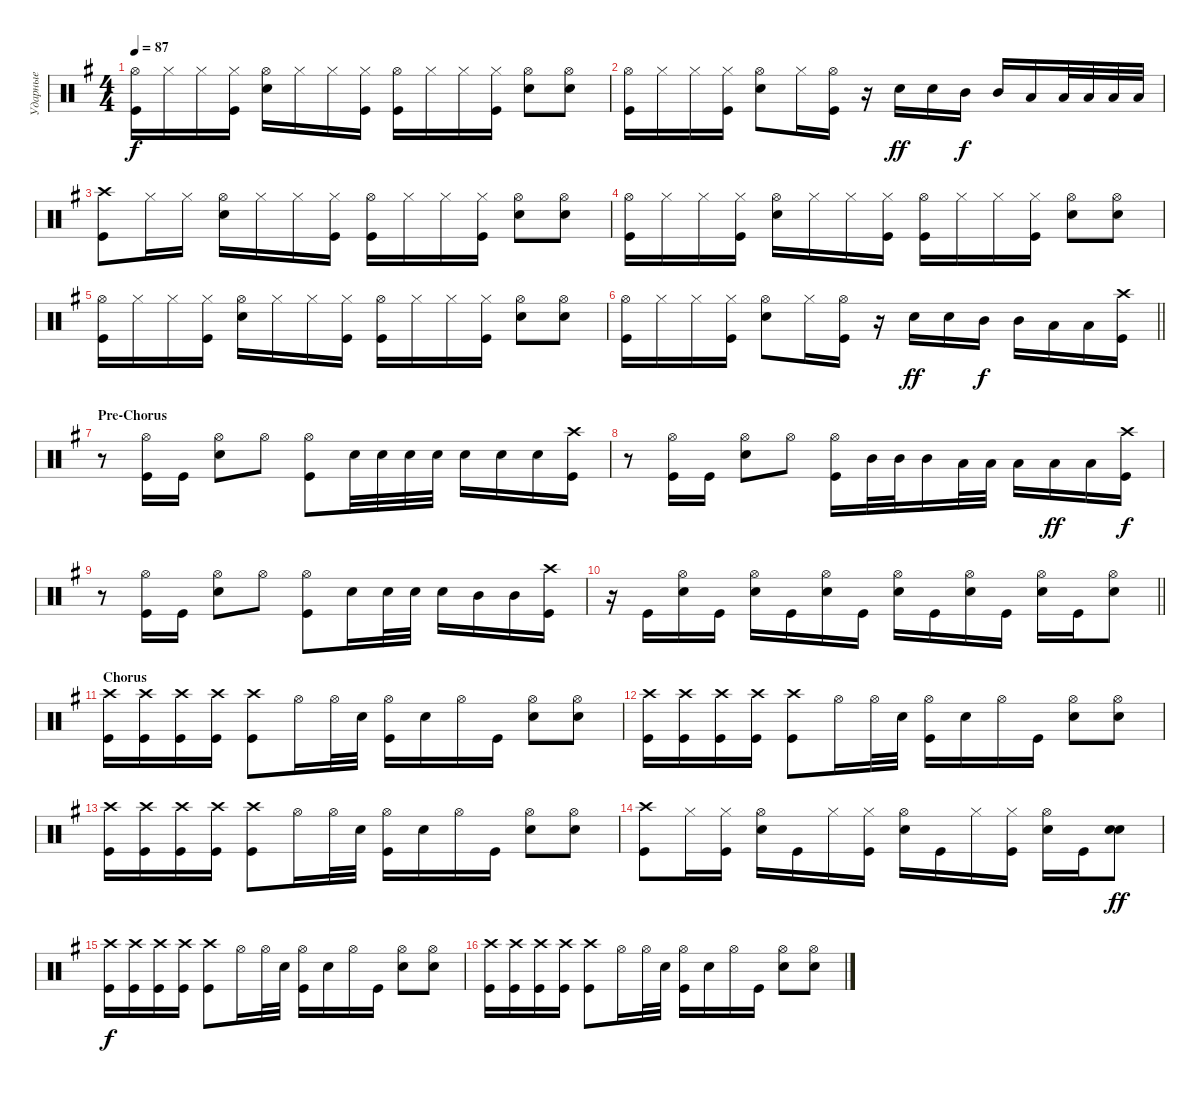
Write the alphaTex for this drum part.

\track ("Ударные" "Ударные") {instrument percussion}
\staff {score}
\articulation defaults
\ts (4 4)
\tempo 87
\clef neutral
\ks eminor
("Kick (hit)" "Hi-Hat (open)").16{dy f} "Hi-Hat (closed)".16 "Hi-Hat (closed)".16 ("Hi-Hat (closed)" "Kick (hit)").16 ("Snare (hit) 2" "Hi-Hat (open)").16 "Hi-Hat (closed)".16 "Hi-Hat (closed)".16 ("Hi-Hat (closed)" "Kick (hit)").16 ("Hi-Hat (open)" "Kick (hit)").16 "Hi-Hat (closed)".16 "Hi-Hat (closed)".16 ("Hi-Hat (closed)" "Kick (hit)").16 ("Hi-Hat (open)" "Snare (hit) 2").8 ("Hi-Hat (open)" "Snare (hit) 2").8 |
("Kick (hit)" "Hi-Hat (open)").16 "Hi-Hat (closed)".16 "Hi-Hat (closed)".16 ("Hi-Hat (closed)" "Kick (hit)").16 ("Snare (hit) 2" "Hi-Hat (open)").8 "Hi-Hat (closed)".16 ("Hi-Hat (open)" "Kick (hit)").16 r.16 "Snare (hit) 2".16{dy ff} "Snare (hit) 2".16 "Mid Tom (hit)".16{dy f} "Mid Tom (hit)".16 "Low Tom (hit)".16 "Low Tom (hit)".32 "Low Tom (hit)".32 "Low Tom (hit)".32 "Low Tom (hit)".32 |
("Kick (hit)" "Crash high (hit)").8 "Hi-Hat (closed)".16 "Hi-Hat (closed)".16 ("Snare (hit) 2" "Hi-Hat (open)").16 "Hi-Hat (closed)".16 "Hi-Hat (closed)".16 ("Hi-Hat (closed)" "Kick (hit)").16 ("Hi-Hat (open)" "Kick (hit)").16 "Hi-Hat (closed)".16 "Hi-Hat (closed)".16 ("Hi-Hat (closed)" "Kick (hit)").16 ("Hi-Hat (open)" "Snare (hit) 2").8 ("Hi-Hat (open)" "Snare (hit) 2").8 |
("Kick (hit)" "Hi-Hat (open)").16 "Hi-Hat (closed)".16 "Hi-Hat (closed)".16 ("Hi-Hat (closed)" "Kick (hit)").16 ("Snare (hit) 2" "Hi-Hat (open)").16 "Hi-Hat (closed)".16 "Hi-Hat (closed)".16 ("Hi-Hat (closed)" "Kick (hit)").16 ("Hi-Hat (open)" "Kick (hit)").16 "Hi-Hat (closed)".16 "Hi-Hat (closed)".16 ("Hi-Hat (closed)" "Kick (hit)").16 ("Hi-Hat (open)" "Snare (hit) 2").8 ("Hi-Hat (open)" "Snare (hit) 2").8 |
("Kick (hit)" "Hi-Hat (open)").16 "Hi-Hat (closed)".16 "Hi-Hat (closed)".16 ("Hi-Hat (closed)" "Kick (hit)").16 ("Snare (hit) 2" "Hi-Hat (open)").16 "Hi-Hat (closed)".16 "Hi-Hat (closed)".16 ("Hi-Hat (closed)" "Kick (hit)").16 ("Hi-Hat (open)" "Kick (hit)").16 "Hi-Hat (closed)".16 "Hi-Hat (closed)".16 ("Hi-Hat (closed)" "Kick (hit)").16 ("Hi-Hat (open)" "Snare (hit) 2").8 ("Hi-Hat (open)" "Snare (hit) 2").8 |
\barLineRight lightlight
("Kick (hit)" "Hi-Hat (open)").16 "Hi-Hat (closed)".16 "Hi-Hat (closed)".16 ("Hi-Hat (closed)" "Kick (hit)").16 ("Snare (hit) 2" "Hi-Hat (open)").8 "Hi-Hat (closed)".16 ("Hi-Hat (open)" "Kick (hit)").16 r.16 "Snare (hit) 2".16{dy ff} "Snare (hit) 2".16 "Mid Tom (hit)".16{dy f} "Mid Tom (hit)".16 "Low Tom (hit)".16 "Low Tom (hit)".16 ("Kick (hit)" "Crash high (hit)").16 |
\section ("" "Pre-Chorus")
r.8 ("Kick (hit)" "Hi-Hat (open)").16 "Kick (hit)".16 ("Snare (hit) 2" "Hi-Hat (open)").8 "Hi-Hat (open)".8 ("Kick (hit)" "Hi-Hat (open)").8 "Snare (hit) 2".32 "Snare (hit) 2".32 "Snare (hit) 2".32 "Snare (hit) 2".32 "Snare (hit) 2".16 "Snare (hit) 2".16 "Snare (hit) 2".16 ("Kick (hit)" "Crash high (hit)").16 |
r.8 ("Kick (hit)" "Hi-Hat (open)").16 "Kick (hit)".16 ("Snare (hit) 2" "Hi-Hat (open)").8 "Hi-Hat (open)".8 ("Kick (hit)" "Hi-Hat (open)").16 "Mid Tom (hit)".32 "Mid Tom (hit)".32 "Mid Tom (hit)".16 "Low Tom (hit)".32 "Low Tom (hit)".32 "Low Tom (hit)".16 "Low Tom (hit)".16{dy ff} "Low Tom (hit)".16 ("Kick (hit)" "Crash high (hit)").16{dy f} |
r.8 ("Kick (hit)" "Hi-Hat (open)").16 "Kick (hit)".16 ("Snare (hit) 2" "Hi-Hat (open)").8 "Hi-Hat (open)".8 ("Kick (hit)" "Hi-Hat (open)").8 "Snare (hit) 2".16 "Snare (hit) 2".32 "Snare (hit) 2".32 "Snare (hit) 2".16 "Mid Tom (hit)".16 "Mid Tom (hit)".16 ("Kick (hit)" "Crash high (hit)").16 |
\barLineRight lightlight
r.16 "Kick (hit)".16 ("Snare (hit) 2" "Hi-Hat (open)").16 "Kick (hit)".16 ("Snare (hit) 2" "Hi-Hat (open)").16 "Kick (hit)".16 ("Snare (hit) 2" "Hi-Hat (open)").16 "Kick (hit)".16 ("Snare (hit) 2" "Hi-Hat (open)").16 "Kick (hit)".16 ("Snare (hit) 2" "Hi-Hat (open)").16 "Kick (hit)".16 ("Snare (hit) 2" "Hi-Hat (open)").16 "Kick (hit)".16 ("Snare (hit) 2" "Hi-Hat (open)").8 |
\section ("" "Chorus")
("Kick (hit)" "Crash high (hit)").16 ("Kick (hit)" "Crash high (hit)").16 ("Kick (hit)" "Crash high (hit)").16 ("Kick (hit)" "Crash high (hit)").16 ("Kick (hit)" "Crash high (hit)").8 "Hi-Hat (open)".16 "Hi-Hat (open)".32 "Snare (hit) 2".32 ("Kick (hit)" "Hi-Hat (open)").16 "Snare (hit) 2".16 "Hi-Hat (open)".16 "Kick (hit)".16 ("Snare (hit) 2" "Hi-Hat (open)").8 ("Snare (hit) 2" "Hi-Hat (open)").8 |
("Kick (hit)" "Crash high (hit)").16 ("Kick (hit)" "Crash high (hit)").16 ("Kick (hit)" "Crash high (hit)").16 ("Kick (hit)" "Crash high (hit)").16 ("Kick (hit)" "Crash high (hit)").8 "Hi-Hat (open)".16 "Hi-Hat (open)".32 "Snare (hit) 2".32 ("Kick (hit)" "Hi-Hat (open)").16 "Snare (hit) 2".16 "Hi-Hat (open)".16 "Kick (hit)".16 ("Snare (hit) 2" "Hi-Hat (open)").8 ("Snare (hit) 2" "Hi-Hat (open)").8 |
("Kick (hit)" "Crash high (hit)").16 ("Kick (hit)" "Crash high (hit)").16 ("Kick (hit)" "Crash high (hit)").16 ("Kick (hit)" "Crash high (hit)").16 ("Kick (hit)" "Crash high (hit)").8 "Hi-Hat (open)".16 "Hi-Hat (open)".32 "Snare (hit) 2".32 ("Kick (hit)" "Hi-Hat (open)").16 "Snare (hit) 2".16 "Hi-Hat (open)".16 "Kick (hit)".16 ("Snare (hit) 2" "Hi-Hat (open)").8 ("Snare (hit) 2" "Hi-Hat (open)").8 |
("Kick (hit)" "Crash high (hit)").8 "Hi-Hat (closed)".16 ("Kick (hit)" "Hi-Hat (closed)").16 ("Snare (hit) 2" "Hi-Hat (open)").16 "Kick (hit)".16 "Hi-Hat (closed)".16 ("Kick (hit)" "Hi-Hat (closed)").16 ("Snare (hit) 2" "Hi-Hat (open)").16 "Kick (hit)".16 "Hi-Hat (closed)".16 ("Kick (hit)" "Hi-Hat (closed)").16 ("Snare (hit) 2" "Hi-Hat (open)").16 "Kick (hit)".16 ("Snare (hit) 2" "Snare (hit) 2").8{bd 240 dy ff} |
("Kick (hit)" "Crash high (hit)").16{dy f} ("Kick (hit)" "Crash high (hit)").16 ("Kick (hit)" "Crash high (hit)").16 ("Kick (hit)" "Crash high (hit)").16 ("Kick (hit)" "Crash high (hit)").8 "Hi-Hat (open)".16 "Hi-Hat (open)".32 "Snare (hit) 2".32 ("Kick (hit)" "Hi-Hat (open)").16 "Snare (hit) 2".16 "Hi-Hat (open)".16 "Kick (hit)".16 ("Snare (hit) 2" "Hi-Hat (open)").8 ("Snare (hit) 2" "Hi-Hat (open)").8 |
("Kick (hit)" "Crash high (hit)").16 ("Kick (hit)" "Crash high (hit)").16 ("Kick (hit)" "Crash high (hit)").16 ("Kick (hit)" "Crash high (hit)").16 ("Kick (hit)" "Crash high (hit)").8 "Hi-Hat (open)".16 "Hi-Hat (open)".32 "Snare (hit) 2".32 ("Kick (hit)" "Hi-Hat (open)").16 "Snare (hit) 2".16 "Hi-Hat (open)".16 "Kick (hit)".16 ("Snare (hit) 2" "Hi-Hat (open)").8 ("Snare (hit) 2" "Hi-Hat (open)").8
